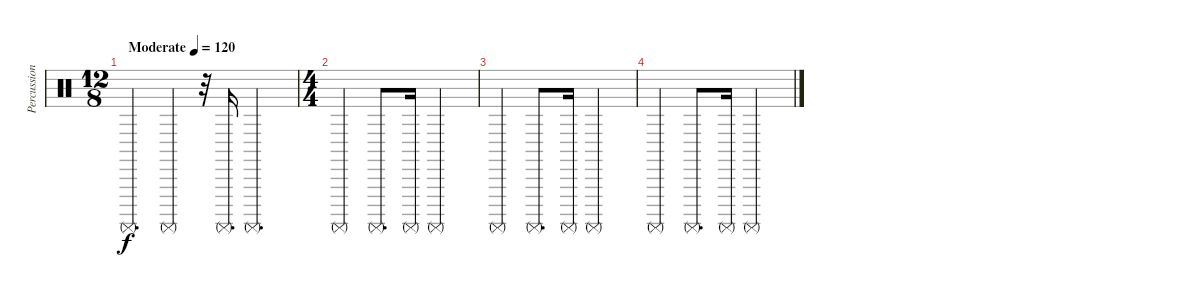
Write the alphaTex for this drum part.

\track ("Percussions" "Percussion") {instrument percussion}
\staff {score}
\articulation defaults
\ts (12 8)
\tempo (120 "Moderate")
\clef neutral
\ks c "Surdo (mute)".4{d dy f} "Surdo (mute)".4
r.32 "Surdo (mute)".16{d} "Surdo (mute)".2{d} |
\ts (4 4)
"Surdo (mute)".4 "Surdo (mute)".8{d} "Surdo (mute)".16 "Surdo (mute)".2 |
"Surdo (mute)".4 "Surdo (mute)".8{d} "Surdo (mute)".16 "Surdo (mute)".2 |
"Surdo (mute)".4 "Surdo (mute)".8{d} "Surdo (mute)".16 "Surdo (mute)".2
